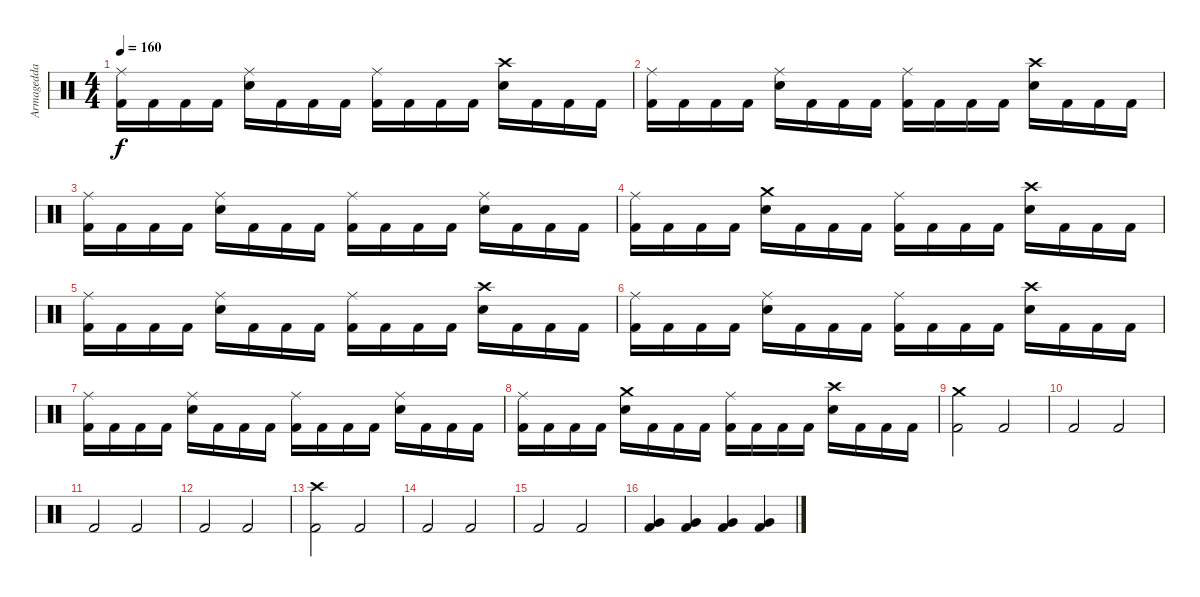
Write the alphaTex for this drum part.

\track ("Armagedda" "Armagedda") {instrument percussion}
\staff {score}
\articulation defaults
\ts (4 4)
\tempo 160
\clef neutral
\ks c
("Ride (middle)" "Kick (hit) 2").16{dy f} "Kick (hit) 2".16 "Kick (hit) 2".16 "Kick (hit) 2".16 ("Ride (middle)" "Snare (hit) 2").16 "Kick (hit) 2".16 "Kick (hit) 2".16 "Kick (hit) 2".16 ("Ride (middle)" "Kick (hit) 2").16 "Kick (hit) 2".16 "Kick (hit) 2".16 "Kick (hit) 2".16 ("Crash high (hit)" "Snare (hit) 2").16 "Kick (hit) 2".16 "Kick (hit) 2".16 "Kick (hit) 2".16 |
("Ride (middle)" "Kick (hit) 2").16 "Kick (hit) 2".16 "Kick (hit) 2".16 "Kick (hit) 2".16 ("Ride (middle)" "Snare (hit) 2").16 "Kick (hit) 2".16 "Kick (hit) 2".16 "Kick (hit) 2".16 ("Ride (middle)" "Kick (hit) 2").16 "Kick (hit) 2".16 "Kick (hit) 2".16 "Kick (hit) 2".16 ("Crash high (hit)" "Snare (hit) 2").16 "Kick (hit) 2".16 "Kick (hit) 2".16 "Kick (hit) 2".16 |
("Ride (middle)" "Kick (hit) 2").16 "Kick (hit) 2".16 "Kick (hit) 2".16 "Kick (hit) 2".16 ("Ride (middle)" "Snare (hit) 2").16 "Kick (hit) 2".16 "Kick (hit) 2".16 "Kick (hit) 2".16 ("Ride (middle)" "Kick (hit) 2").16 "Kick (hit) 2".16 "Kick (hit) 2".16 "Kick (hit) 2".16 ("Ride (middle)" "Snare (hit) 2").16 "Kick (hit) 2".16 "Kick (hit) 2".16 "Kick (hit) 2".16 |
("Ride (middle)" "Kick (hit) 2").16 "Kick (hit) 2".16 "Kick (hit) 2".16 "Kick (hit) 2".16 ("Crash medium (hit)" "Snare (hit) 2").16 "Kick (hit) 2".16 "Kick (hit) 2".16 "Kick (hit) 2".16 ("Ride (middle)" "Kick (hit) 2").16 "Kick (hit) 2".16 "Kick (hit) 2".16 "Kick (hit) 2".16 ("Crash high (hit)" "Snare (hit) 2").16 "Kick (hit) 2".16 "Kick (hit) 2".16 "Kick (hit) 2".16 |
("Ride (middle)" "Kick (hit) 2").16 "Kick (hit) 2".16 "Kick (hit) 2".16 "Kick (hit) 2".16 ("Ride (middle)" "Snare (hit) 2").16 "Kick (hit) 2".16 "Kick (hit) 2".16 "Kick (hit) 2".16 ("Ride (middle)" "Kick (hit) 2").16 "Kick (hit) 2".16 "Kick (hit) 2".16 "Kick (hit) 2".16 ("Crash high (hit)" "Snare (hit) 2").16 "Kick (hit) 2".16 "Kick (hit) 2".16 "Kick (hit) 2".16 |
("Ride (middle)" "Kick (hit) 2").16 "Kick (hit) 2".16 "Kick (hit) 2".16 "Kick (hit) 2".16 ("Ride (middle)" "Snare (hit) 2").16 "Kick (hit) 2".16 "Kick (hit) 2".16 "Kick (hit) 2".16 ("Ride (middle)" "Kick (hit) 2").16 "Kick (hit) 2".16 "Kick (hit) 2".16 "Kick (hit) 2".16 ("Crash high (hit)" "Snare (hit) 2").16 "Kick (hit) 2".16 "Kick (hit) 2".16 "Kick (hit) 2".16 |
("Ride (middle)" "Kick (hit) 2").16 "Kick (hit) 2".16 "Kick (hit) 2".16 "Kick (hit) 2".16 ("Ride (middle)" "Snare (hit) 2").16 "Kick (hit) 2".16 "Kick (hit) 2".16 "Kick (hit) 2".16 ("Ride (middle)" "Kick (hit) 2").16 "Kick (hit) 2".16 "Kick (hit) 2".16 "Kick (hit) 2".16 ("Ride (middle)" "Snare (hit) 2").16 "Kick (hit) 2".16 "Kick (hit) 2".16 "Kick (hit) 2".16 |
("Ride (middle)" "Kick (hit) 2").16 "Kick (hit) 2".16 "Kick (hit) 2".16 "Kick (hit) 2".16 ("Crash medium (hit)" "Snare (hit) 2").16 "Kick (hit) 2".16 "Kick (hit) 2".16 "Kick (hit) 2".16 ("Ride (middle)" "Kick (hit) 2").16 "Kick (hit) 2".16 "Kick (hit) 2".16 "Kick (hit) 2".16 ("Crash high (hit)" "Snare (hit) 2").16 "Kick (hit) 2".16 "Kick (hit) 2".16 "Kick (hit) 2".16 |
("Crash medium (hit)" "Kick (hit) 2").2 "Kick (hit) 2".2 |
"Kick (hit) 2".2 "Kick (hit) 2".2 |
"Kick (hit) 2".2 "Kick (hit) 2".2 |
"Kick (hit) 2".2 "Kick (hit) 2".2 |
("Crash high (hit)" "Kick (hit) 2").2 "Kick (hit) 2".2 |
"Kick (hit) 2".2 "Kick (hit) 2".2 |
"Kick (hit) 2".2 "Kick (hit) 2".2 |
("Very Low Tom (hit)" "Kick (hit) 2").4 ("Very Low Tom (hit)" "Kick (hit) 2").4 ("Very Low Tom (hit)" "Kick (hit) 2").4 ("Very Low Tom (hit)" "Kick (hit) 2").4
